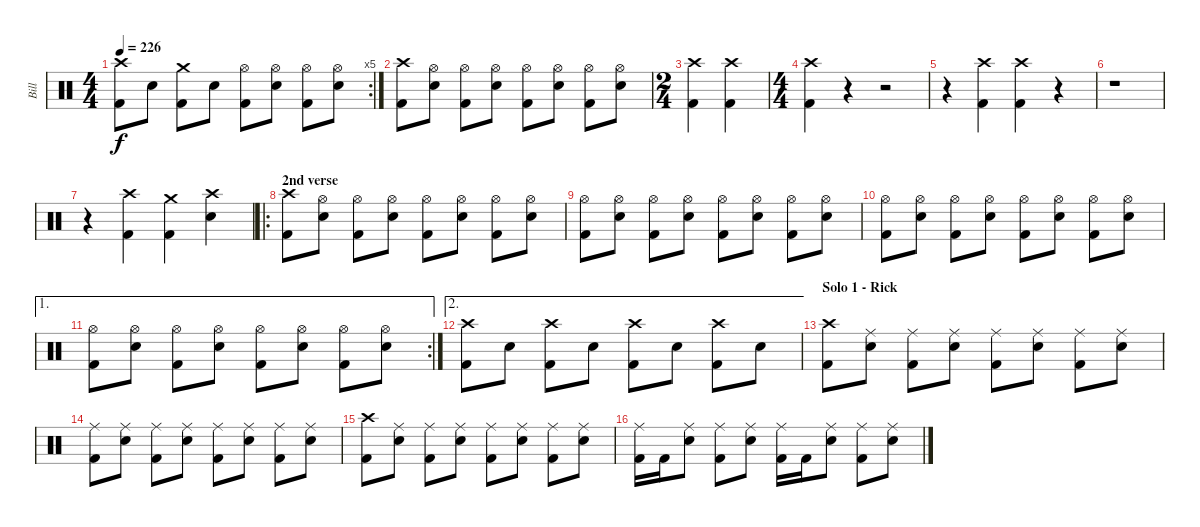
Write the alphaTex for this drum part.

\track ("Bill" "Bill") {instrument percussion}
\staff {score}
\articulation defaults
\rc 5
\ts (4 4)
\tempo 226
\clef neutral
\ks c
("Crash high (hit)" "Kick (hit) 2").8{dy f} "Electric Snare (hit)".8 ("Crash medium (hit)" "Kick (hit) 2").8 "Electric Snare (hit)".8 ("Hi-Hat (open)" "Kick (hit) 2").8 ("Hi-Hat (open)" "Electric Snare (hit)").8 ("Hi-Hat (open)" "Kick (hit) 2").8 ("Hi-Hat (open)" "Electric Snare (hit)").8 |
("Crash high (hit)" "Kick (hit) 2").8 ("Hi-Hat (open)" "Electric Snare (hit)").8 ("Hi-Hat (open)" "Kick (hit) 2").8 ("Hi-Hat (open)" "Electric Snare (hit)").8 ("Hi-Hat (open)" "Kick (hit) 2").8 ("Hi-Hat (open)" "Electric Snare (hit)").8 ("Hi-Hat (open)" "Kick (hit) 2").8 ("Hi-Hat (open)" "Electric Snare (hit)").8 |
\ts (2 4)
("Crash high (hit)" "Kick (hit) 2").4 ("Crash high (hit)" "Kick (hit) 2").4 |
\ts (4 4)
("Crash high (hit)" "Kick (hit) 2").4 r.4 r.2 |
r.4 ("Crash high (hit)" "Kick (hit) 2").4 ("Crash high (hit)" "Kick (hit) 2").4 r.4 |
r.1 |
r.4 ("Crash high (hit)" "Kick (hit) 2").4 ("Crash medium (hit)" "Kick (hit) 2").4 ("Crash high (hit)" "Electric Snare (hit)").4 |
\ro
\section ("" "2nd verse")
("Crash high (hit)" "Kick (hit) 2").8 ("Hi-Hat (open)" "Electric Snare (hit)").8 ("Hi-Hat (open)" "Kick (hit) 2").8 ("Hi-Hat (open)" "Electric Snare (hit)").8 ("Hi-Hat (open)" "Kick (hit) 2").8 ("Hi-Hat (open)" "Electric Snare (hit)").8 ("Hi-Hat (open)" "Kick (hit) 2").8 ("Hi-Hat (open)" "Electric Snare (hit)").8 |
("Hi-Hat (open)" "Kick (hit) 2").8 ("Hi-Hat (open)" "Electric Snare (hit)").8 ("Hi-Hat (open)" "Kick (hit) 2").8 ("Hi-Hat (open)" "Electric Snare (hit)").8 ("Hi-Hat (open)" "Kick (hit) 2").8 ("Hi-Hat (open)" "Electric Snare (hit)").8 ("Hi-Hat (open)" "Kick (hit) 2").8 ("Hi-Hat (open)" "Electric Snare (hit)").8 |
("Hi-Hat (open)" "Kick (hit) 2").8 ("Hi-Hat (open)" "Electric Snare (hit)").8 ("Hi-Hat (open)" "Kick (hit) 2").8 ("Hi-Hat (open)" "Electric Snare (hit)").8 ("Hi-Hat (open)" "Kick (hit) 2").8 ("Hi-Hat (open)" "Electric Snare (hit)").8 ("Hi-Hat (open)" "Kick (hit) 2").8 ("Hi-Hat (open)" "Electric Snare (hit)").8 |
\ae 1
\rc 2
("Hi-Hat (open)" "Kick (hit) 2").8 ("Hi-Hat (open)" "Electric Snare (hit)").8 ("Hi-Hat (open)" "Kick (hit) 2").8 ("Hi-Hat (open)" "Electric Snare (hit)").8 ("Hi-Hat (open)" "Kick (hit) 2").8 ("Hi-Hat (open)" "Electric Snare (hit)").8 ("Hi-Hat (open)" "Kick (hit) 2").8 ("Hi-Hat (open)" "Electric Snare (hit)").8 |
\ae 2
("Crash high (hit)" "Kick (hit) 2").8 "Electric Snare (hit)".8 ("Crash high (hit)" "Kick (hit) 2").8 "Electric Snare (hit)".8 ("Crash high (hit)" "Kick (hit) 2").8 "Electric Snare (hit)".8 ("Crash high (hit)" "Kick (hit) 2").8 "Electric Snare (hit)".8 |
\section ("" "Solo 1 - Rick")
("Crash high (hit)" "Kick (hit) 2").8 ("Ride (middle)" "Electric Snare (hit)").8 ("Ride (middle)" "Kick (hit) 2").8 ("Ride (middle)" "Electric Snare (hit)").8 ("Ride (middle)" "Kick (hit) 2").8 ("Ride (middle)" "Electric Snare (hit)").8 ("Ride (middle)" "Kick (hit) 2").8 ("Ride (middle)" "Electric Snare (hit)").8 |
("Ride (middle)" "Kick (hit) 2").8 ("Ride (middle)" "Electric Snare (hit)").8 ("Ride (middle)" "Kick (hit) 2").8 ("Ride (middle)" "Electric Snare (hit)").8 ("Ride (middle)" "Kick (hit) 2").8 ("Ride (middle)" "Electric Snare (hit)").8 ("Ride (middle)" "Kick (hit) 2").8 ("Ride (middle)" "Electric Snare (hit)").8 |
("Crash high (hit)" "Kick (hit) 2").8 ("Ride (middle)" "Electric Snare (hit)").8 ("Ride (middle)" "Kick (hit) 2").8 ("Ride (middle)" "Electric Snare (hit)").8 ("Ride (middle)" "Kick (hit) 2").8 ("Ride (middle)" "Electric Snare (hit)").8 ("Ride (middle)" "Kick (hit) 2").8 ("Ride (middle)" "Electric Snare (hit)").8 |
("Ride (middle)" "Kick (hit) 2").16 "Kick (hit) 2".16 ("Ride (middle)" "Electric Snare (hit)").8 ("Ride (middle)" "Kick (hit) 2").8 ("Ride (middle)" "Electric Snare (hit)").8 ("Ride (middle)" "Kick (hit) 2").16 "Kick (hit) 2".16 ("Ride (middle)" "Electric Snare (hit)").8 ("Ride (middle)" "Kick (hit) 2").8 ("Ride (middle)" "Electric Snare (hit)").8
